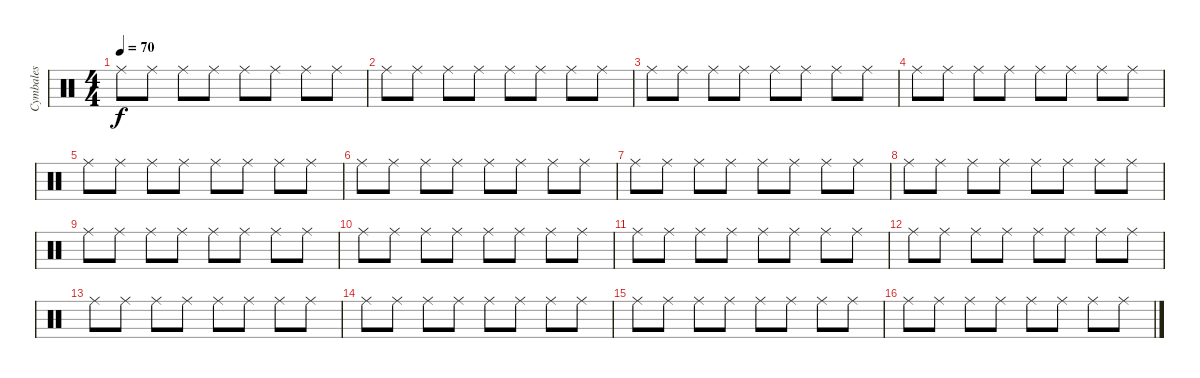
\track ("Cymbales" "Cymbales") {instrument percussion}
\staff {score}
\articulation defaults
\ts (4 4)
\tempo 70
\clef neutral
\ks c "Ride (middle)".8{dy f} "Ride (middle)".8 "Ride (middle)".8 "Ride (middle)".8 "Ride (middle)".8 "Ride (middle)".8 "Ride (middle)".8 "Ride (middle)".8
|
"Ride (middle)".8 "Ride (middle)".8 "Ride (middle)".8 "Ride (middle)".8 "Ride (middle)".8 "Ride (middle)".8 "Ride (middle)".8 "Ride (middle)".8 |
"Ride (middle)".8 "Ride (middle)".8 "Ride (middle)".8 "Ride (middle)".8 "Ride (middle)".8 "Ride (middle)".8 "Ride (middle)".8 "Ride (middle)".8 |
"Ride (middle)".8 "Ride (middle)".8 "Ride (middle)".8 "Ride (middle)".8 "Ride (middle)".8 "Ride (middle)".8 "Ride (middle)".8 "Ride (middle)".8 |
"Ride (middle)".8 "Ride (middle)".8 "Ride (middle)".8 "Ride (middle)".8 "Ride (middle)".8 "Ride (middle)".8 "Ride (middle)".8 "Ride (middle)".8 |
"Ride (middle)".8 "Ride (middle)".8 "Ride (middle)".8 "Ride (middle)".8 "Ride (middle)".8 "Ride (middle)".8 "Ride (middle)".8 "Ride (middle)".8 |
"Ride (middle)".8 "Ride (middle)".8 "Ride (middle)".8 "Ride (middle)".8 "Ride (middle)".8 "Ride (middle)".8 "Ride (middle)".8 "Ride (middle)".8 |
"Ride (middle)".8 "Ride (middle)".8 "Ride (middle)".8 "Ride (middle)".8 "Ride (middle)".8 "Ride (middle)".8 "Ride (middle)".8 "Ride (middle)".8 |
"Ride (middle)".8 "Ride (middle)".8 "Ride (middle)".8 "Ride (middle)".8 "Ride (middle)".8 "Ride (middle)".8 "Ride (middle)".8 "Ride (middle)".8 |
"Ride (middle)".8 "Ride (middle)".8 "Ride (middle)".8 "Ride (middle)".8 "Ride (middle)".8 "Ride (middle)".8 "Ride (middle)".8 "Ride (middle)".8 |
"Ride (middle)".8 "Ride (middle)".8 "Ride (middle)".8 "Ride (middle)".8 "Ride (middle)".8 "Ride (middle)".8 "Ride (middle)".8 "Ride (middle)".8 |
"Ride (middle)".8 "Ride (middle)".8 "Ride (middle)".8 "Ride (middle)".8 "Ride (middle)".8 "Ride (middle)".8 "Ride (middle)".8 "Ride (middle)".8 |
"Ride (middle)".8 "Ride (middle)".8 "Ride (middle)".8 "Ride (middle)".8 "Ride (middle)".8 "Ride (middle)".8 "Ride (middle)".8 "Ride (middle)".8 |
"Ride (middle)".8 "Ride (middle)".8 "Ride (middle)".8 "Ride (middle)".8 "Ride (middle)".8 "Ride (middle)".8 "Ride (middle)".8 "Ride (middle)".8 |
"Ride (middle)".8 "Ride (middle)".8 "Ride (middle)".8 "Ride (middle)".8 "Ride (middle)".8 "Ride (middle)".8 "Ride (middle)".8 "Ride (middle)".8 |
"Ride (middle)".8 "Ride (middle)".8 "Ride (middle)".8 "Ride (middle)".8 "Ride (middle)".8 "Ride (middle)".8 "Ride (middle)".8 "Ride (middle)".8
